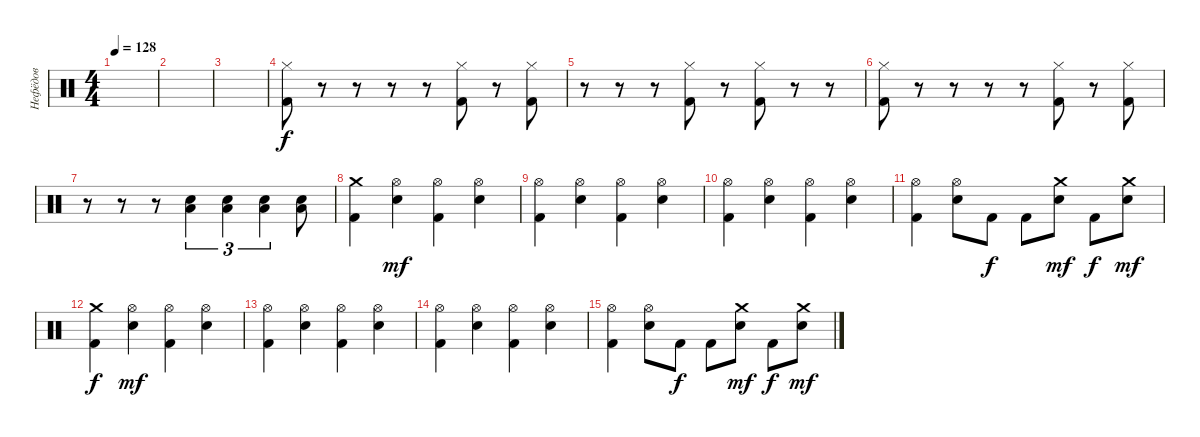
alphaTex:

\track ("Нефёдов" "Нефёдов") {instrument percussion}
\staff {score}
\articulation defaults
\ts (4 4)
\tempo 128
\clef neutral
\ks c
|
|
|
("Hi-Hat (closed)" "Kick (hit) 2").8 r.8 r.8 r.8 r.8 ("Hi-Hat (closed)" "Kick (hit) 2").8 r.8 ("Hi-Hat (closed)" "Kick (hit) 2").8 |
r.8 r.8 r.8 ("Hi-Hat (closed)" "Kick (hit) 2").8 r.8 ("Hi-Hat (closed)" "Kick (hit) 2").8 r.8 r.8 |
("Hi-Hat (closed)" "Kick (hit) 2").8 r.8 r.8 r.8 r.8 ("Hi-Hat (closed)" "Kick (hit) 2").8 r.8 ("Hi-Hat (closed)" "Kick (hit) 2").8 |
r.8 r.8 r.8 ("Snare (hit) 2" "Low Tom (hit)").4{tu (3 2)} ("Snare (hit) 2" "Low Tom (hit)").4{tu (3 2)} ("Snare (hit) 2" "Low Tom (hit)").4{tu (3 2)} ("Snare (hit) 2" "Low Tom (hit)").8 |
("Crash medium (hit)" "Kick (hit) 2").4 ("Hi-Hat (open)" "Snare (hit) 2").4{dy mf} ("Hi-Hat (open)" "Kick (hit) 2").4 ("Hi-Hat (open)" "Snare (hit) 2").4 |
("Hi-Hat (open)" "Kick (hit) 2").4 ("Hi-Hat (open)" "Snare (hit) 2").4 ("Hi-Hat (open)" "Kick (hit) 2").4 ("Hi-Hat (open)" "Snare (hit) 2").4 |
("Hi-Hat (open)" "Kick (hit) 2").4 ("Hi-Hat (open)" "Snare (hit) 2").4 ("Hi-Hat (open)" "Kick (hit) 2").4 ("Hi-Hat (open)" "Snare (hit) 2").4 |
("Hi-Hat (open)" "Kick (hit) 2").4 ("Hi-Hat (open)" "Snare (hit) 2").8 "Kick (hit) 2".8{dy f} "Kick (hit) 2".8 ("Crash medium (hit)" "Snare (hit) 2").8{dy mf} "Kick (hit) 2".8{dy f} ("Crash medium (hit)" "Snare (hit) 2").8{dy mf} |
("Crash medium (hit)" "Kick (hit) 2").4{dy f} ("Hi-Hat (open)" "Snare (hit) 2").4{dy mf} ("Hi-Hat (open)" "Kick (hit) 2").4 ("Hi-Hat (open)" "Snare (hit) 2").4 |
("Hi-Hat (open)" "Kick (hit) 2").4 ("Hi-Hat (open)" "Snare (hit) 2").4 ("Hi-Hat (open)" "Kick (hit) 2").4 ("Hi-Hat (open)" "Snare (hit) 2").4 |
("Hi-Hat (open)" "Kick (hit) 2").4 ("Hi-Hat (open)" "Snare (hit) 2").4 ("Hi-Hat (open)" "Kick (hit) 2").4 ("Hi-Hat (open)" "Snare (hit) 2").4 |
("Hi-Hat (open)" "Kick (hit) 2").4 ("Hi-Hat (open)" "Snare (hit) 2").8 "Kick (hit) 2".8{dy f} "Kick (hit) 2".8 ("Crash medium (hit)" "Snare (hit) 2").8{dy mf} "Kick (hit) 2".8{dy f} ("Crash medium (hit)" "Snare (hit) 2").8{dy mf}
